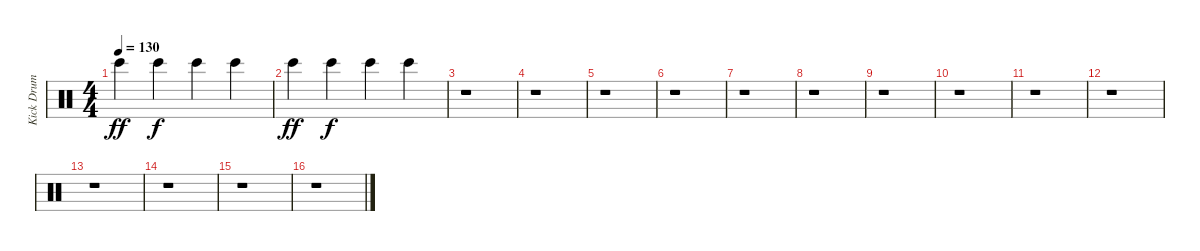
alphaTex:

\track ("Kick Drum" "Kick Drum") {instrument percussion}
\staff {score}
\articulation defaults
\ts (4 4)
\tempo 130
\clef neutral
\ks c "Bongo High (hit)".4{dy ff} "Bongo High (hit)".4{dy f} "Bongo High (hit)".4 "Bongo High (hit)".4
|
"Bongo High (hit)".4{dy ff} "Bongo High (hit)".4{dy f} "Bongo High (hit)".4 "Bongo High (hit)".4 |
r.1 |
r.1 |
r.1 |
r.1 |
r.1 |
r.1 |
r.1 |
r.1 |
r.1 |
r.1 |
r.1 |
r.1 |
r.1 |
r.1
